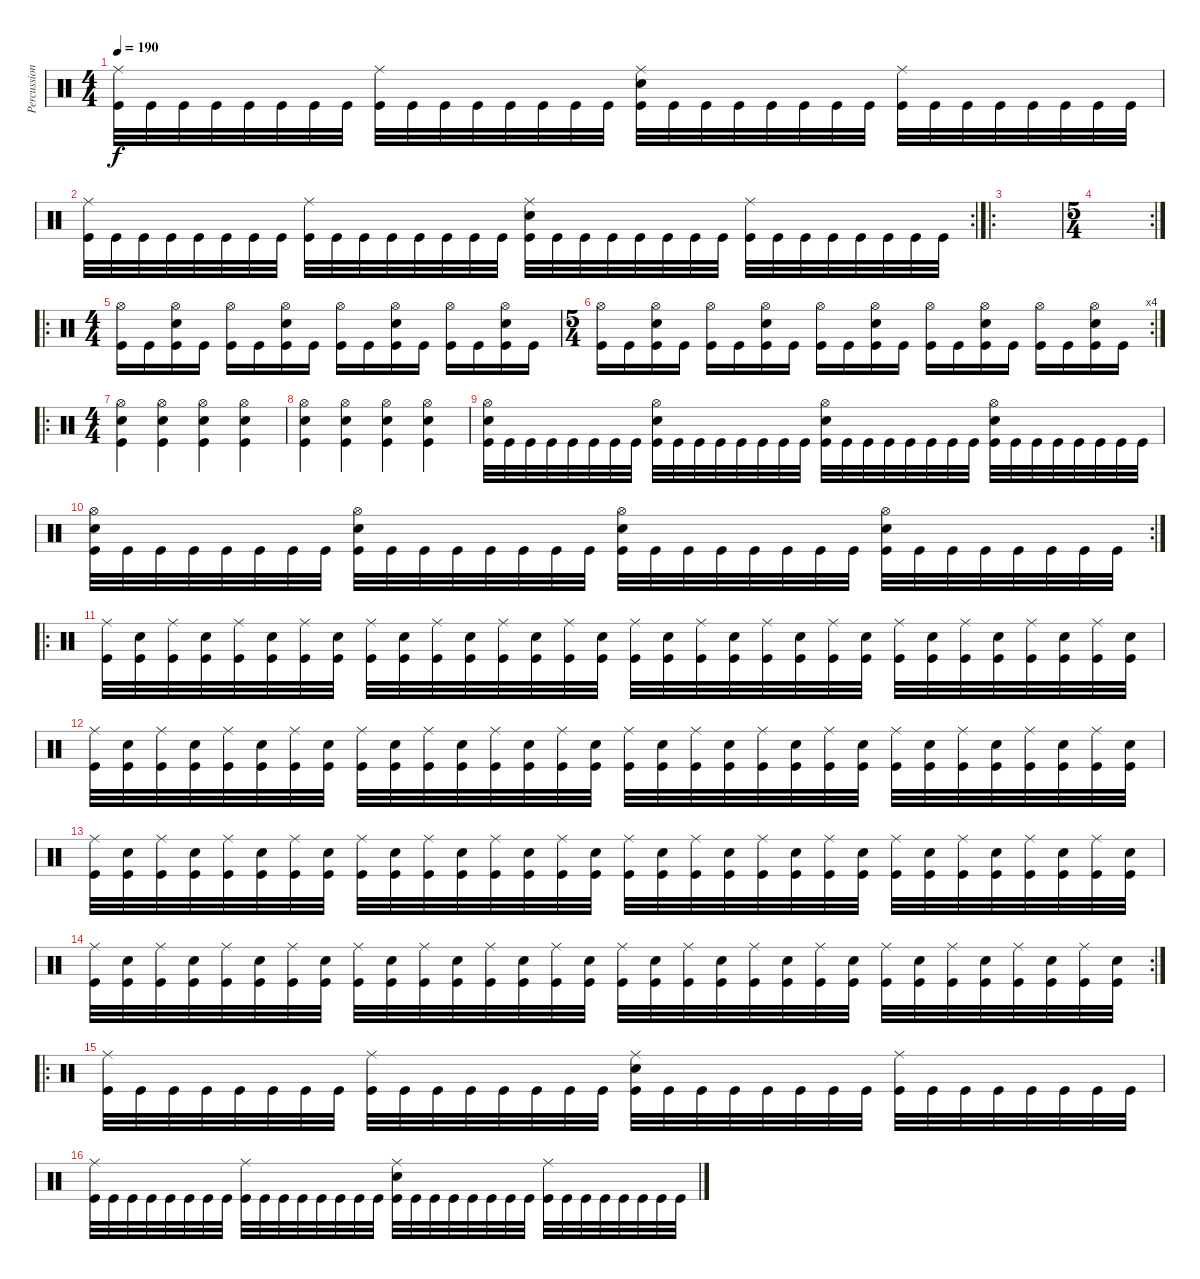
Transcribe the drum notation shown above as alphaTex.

\track ("Percussion" "Percussion") {instrument percussion}
\staff {score}
\articulation defaults
\ts (4 4)
\tempo 190
\clef neutral
\ks c
("Ride (middle)" "Kick (hit)").32{dy f} "Kick (hit)".32 "Kick (hit)".32 "Kick (hit)".32 "Kick (hit)".32 "Kick (hit)".32 "Kick (hit)".32 "Kick (hit)".32 ("Ride (middle)" "Kick (hit)").32 "Kick (hit)".32 "Kick (hit)".32 "Kick (hit)".32 "Kick (hit)".32 "Kick (hit)".32 "Kick (hit)".32 "Kick (hit)".32 ("Ride (middle)" "Snare (hit) 2" "Kick (hit)").32 "Kick (hit)".32 "Kick (hit)".32 "Kick (hit)".32 "Kick (hit)".32 "Kick (hit)".32 "Kick (hit)".32 "Kick (hit)".32 ("Ride (middle)" "Kick (hit)").32 "Kick (hit)".32 "Kick (hit)".32 "Kick (hit)".32 "Kick (hit)".32 "Kick (hit)".32 "Kick (hit)".32 "Kick (hit)".32 |
\rc 2
("Ride (middle)" "Kick (hit)").32 "Kick (hit)".32 "Kick (hit)".32 "Kick (hit)".32 "Kick (hit)".32 "Kick (hit)".32 "Kick (hit)".32 "Kick (hit)".32 ("Ride (middle)" "Kick (hit)").32 "Kick (hit)".32 "Kick (hit)".32 "Kick (hit)".32 "Kick (hit)".32 "Kick (hit)".32 "Kick (hit)".32 "Kick (hit)".32 ("Ride (middle)" "Snare (hit) 2" "Kick (hit)").32 "Kick (hit)".32 "Kick (hit)".32 "Kick (hit)".32 "Kick (hit)".32 "Kick (hit)".32 "Kick (hit)".32 "Kick (hit)".32 ("Ride (middle)" "Kick (hit)").32 "Kick (hit)".32 "Kick (hit)".32 "Kick (hit)".32 "Kick (hit)".32 "Kick (hit)".32 "Kick (hit)".32 "Kick (hit)".32 |
\ro
|
\rc 2
\ts (5 4)
|
\ro
\ts (4 4)
("Hi-Hat (open)" "Kick (hit)").16 "Kick (hit)".16 ("Hi-Hat (open)" "Snare (hit) 2" "Kick (hit)").16 "Kick (hit)".16 ("Hi-Hat (open)" "Kick (hit)").16 "Kick (hit)".16 ("Hi-Hat (open)" "Snare (hit) 2" "Kick (hit)").16 "Kick (hit)".16 ("Hi-Hat (open)" "Kick (hit)").16 "Kick (hit)".16 ("Hi-Hat (open)" "Snare (hit) 2" "Kick (hit)").16 "Kick (hit)".16 ("Hi-Hat (open)" "Kick (hit)").16 "Kick (hit)".16 ("Hi-Hat (open)" "Snare (hit) 2" "Kick (hit)").16 "Kick (hit)".16 |
\rc 4
\ts (5 4)
("Hi-Hat (open)" "Kick (hit)").16 "Kick (hit)".16 ("Hi-Hat (open)" "Snare (hit) 2" "Kick (hit)").16 "Kick (hit)".16 ("Hi-Hat (open)" "Kick (hit)").16 "Kick (hit)".16 ("Hi-Hat (open)" "Snare (hit) 2" "Kick (hit)").16 "Kick (hit)".16 ("Hi-Hat (open)" "Kick (hit)").16 "Kick (hit)".16 ("Hi-Hat (open)" "Snare (hit) 2" "Kick (hit)").16 "Kick (hit)".16 ("Hi-Hat (open)" "Kick (hit)").16 "Kick (hit)".16 ("Hi-Hat (open)" "Snare (hit) 2" "Kick (hit)").16 "Kick (hit)".16 ("Hi-Hat (open)" "Kick (hit)").16 "Kick (hit)".16 ("Hi-Hat (open)" "Snare (hit) 2" "Kick (hit)").16 "Kick (hit)".16 |
\ro
\ts (4 4)
("Hi-Hat (open)" "Snare (hit) 2" "Kick (hit)").4 ("Hi-Hat (open)" "Snare (hit) 2" "Kick (hit)").4 ("Hi-Hat (open)" "Snare (hit) 2" "Kick (hit)").4 ("Hi-Hat (open)" "Snare (hit) 2" "Kick (hit)").4 |
("Hi-Hat (open)" "Snare (hit) 2" "Kick (hit)").4 ("Hi-Hat (open)" "Snare (hit) 2" "Kick (hit)").4 ("Hi-Hat (open)" "Snare (hit) 2" "Kick (hit)").4 ("Hi-Hat (open)" "Snare (hit) 2" "Kick (hit)").4 |
("Hi-Hat (open)" "Snare (hit) 2" "Kick (hit)").32 "Kick (hit)".32 "Kick (hit)".32 "Kick (hit)".32 "Kick (hit)".32 "Kick (hit)".32 "Kick (hit)".32 "Kick (hit)".32 ("Hi-Hat (open)" "Snare (hit) 2" "Kick (hit)").32 "Kick (hit)".32 "Kick (hit)".32 "Kick (hit)".32 "Kick (hit)".32 "Kick (hit)".32 "Kick (hit)".32 "Kick (hit)".32 ("Hi-Hat (open)" "Snare (hit) 2" "Kick (hit)").32 "Kick (hit)".32 "Kick (hit)".32 "Kick (hit)".32 "Kick (hit)".32 "Kick (hit)".32 "Kick (hit)".32 "Kick (hit)".32 ("Hi-Hat (open)" "Snare (hit) 2" "Kick (hit)").32 "Kick (hit)".32 "Kick (hit)".32 "Kick (hit)".32 "Kick (hit)".32 "Kick (hit)".32 "Kick (hit)".32 "Kick (hit)".32 |
\rc 2
("Hi-Hat (open)" "Snare (hit) 2" "Kick (hit)").32 "Kick (hit)".32 "Kick (hit)".32 "Kick (hit)".32 "Kick (hit)".32 "Kick (hit)".32 "Kick (hit)".32 "Kick (hit)".32 ("Hi-Hat (open)" "Snare (hit) 2" "Kick (hit)").32 "Kick (hit)".32 "Kick (hit)".32 "Kick (hit)".32 "Kick (hit)".32 "Kick (hit)".32 "Kick (hit)".32 "Kick (hit)".32 ("Hi-Hat (open)" "Snare (hit) 2" "Kick (hit)").32 "Kick (hit)".32 "Kick (hit)".32 "Kick (hit)".32 "Kick (hit)".32 "Kick (hit)".32 "Kick (hit)".32 "Kick (hit)".32 ("Hi-Hat (open)" "Snare (hit) 2" "Kick (hit)").32 "Kick (hit)".32 "Kick (hit)".32 "Kick (hit)".32 "Kick (hit)".32 "Kick (hit)".32 "Kick (hit)".32 "Kick (hit)".32 |
\ro
("Ride (middle)" "Kick (hit)").32 ("Snare (hit) 2" "Kick (hit)").32 ("Ride (middle)" "Kick (hit)").32 ("Snare (hit) 2" "Kick (hit)").32 ("Ride (middle)" "Kick (hit)").32 ("Snare (hit) 2" "Kick (hit)").32 ("Ride (middle)" "Kick (hit)").32 ("Snare (hit) 2" "Kick (hit)").32 ("Ride (middle)" "Kick (hit)").32 ("Snare (hit) 2" "Kick (hit)").32 ("Ride (middle)" "Kick (hit)").32 ("Snare (hit) 2" "Kick (hit)").32 ("Ride (middle)" "Kick (hit)").32 ("Snare (hit) 2" "Kick (hit)").32 ("Ride (middle)" "Kick (hit)").32 ("Snare (hit) 2" "Kick (hit)").32 ("Ride (middle)" "Kick (hit)").32 ("Snare (hit) 2" "Kick (hit)").32 ("Ride (middle)" "Kick (hit)").32 ("Snare (hit) 2" "Kick (hit)").32 ("Ride (middle)" "Kick (hit)").32 ("Snare (hit) 2" "Kick (hit)").32 ("Ride (middle)" "Kick (hit)").32 ("Snare (hit) 2" "Kick (hit)").32 ("Ride (middle)" "Kick (hit)").32 ("Snare (hit) 2" "Kick (hit)").32 ("Ride (middle)" "Kick (hit)").32 ("Snare (hit) 2" "Kick (hit)").32 ("Ride (middle)" "Kick (hit)").32 ("Snare (hit) 2" "Kick (hit)").32 ("Ride (middle)" "Kick (hit)").32 ("Snare (hit) 2" "Kick (hit)").32 |
("Ride (middle)" "Kick (hit)").32 ("Snare (hit) 2" "Kick (hit)").32 ("Ride (middle)" "Kick (hit)").32 ("Snare (hit) 2" "Kick (hit)").32 ("Ride (middle)" "Kick (hit)").32 ("Snare (hit) 2" "Kick (hit)").32 ("Ride (middle)" "Kick (hit)").32 ("Snare (hit) 2" "Kick (hit)").32 ("Ride (middle)" "Kick (hit)").32 ("Snare (hit) 2" "Kick (hit)").32 ("Ride (middle)" "Kick (hit)").32 ("Snare (hit) 2" "Kick (hit)").32 ("Ride (middle)" "Kick (hit)").32 ("Snare (hit) 2" "Kick (hit)").32 ("Ride (middle)" "Kick (hit)").32 ("Snare (hit) 2" "Kick (hit)").32 ("Ride (middle)" "Kick (hit)").32 ("Snare (hit) 2" "Kick (hit)").32 ("Ride (middle)" "Kick (hit)").32 ("Snare (hit) 2" "Kick (hit)").32 ("Ride (middle)" "Kick (hit)").32 ("Snare (hit) 2" "Kick (hit)").32 ("Ride (middle)" "Kick (hit)").32 ("Snare (hit) 2" "Kick (hit)").32 ("Ride (middle)" "Kick (hit)").32 ("Snare (hit) 2" "Kick (hit)").32 ("Ride (middle)" "Kick (hit)").32 ("Snare (hit) 2" "Kick (hit)").32 ("Ride (middle)" "Kick (hit)").32 ("Snare (hit) 2" "Kick (hit)").32 ("Ride (middle)" "Kick (hit)").32 ("Snare (hit) 2" "Kick (hit)").32 |
("Ride (middle)" "Kick (hit)").32 ("Snare (hit) 2" "Kick (hit)").32 ("Ride (middle)" "Kick (hit)").32 ("Snare (hit) 2" "Kick (hit)").32 ("Ride (middle)" "Kick (hit)").32 ("Snare (hit) 2" "Kick (hit)").32 ("Ride (middle)" "Kick (hit)").32 ("Snare (hit) 2" "Kick (hit)").32 ("Ride (middle)" "Kick (hit)").32 ("Snare (hit) 2" "Kick (hit)").32 ("Ride (middle)" "Kick (hit)").32 ("Snare (hit) 2" "Kick (hit)").32 ("Ride (middle)" "Kick (hit)").32 ("Snare (hit) 2" "Kick (hit)").32 ("Ride (middle)" "Kick (hit)").32 ("Snare (hit) 2" "Kick (hit)").32 ("Ride (middle)" "Kick (hit)").32 ("Snare (hit) 2" "Kick (hit)").32 ("Ride (middle)" "Kick (hit)").32 ("Snare (hit) 2" "Kick (hit)").32 ("Ride (middle)" "Kick (hit)").32 ("Snare (hit) 2" "Kick (hit)").32 ("Ride (middle)" "Kick (hit)").32 ("Snare (hit) 2" "Kick (hit)").32 ("Ride (middle)" "Kick (hit)").32 ("Snare (hit) 2" "Kick (hit)").32 ("Ride (middle)" "Kick (hit)").32 ("Snare (hit) 2" "Kick (hit)").32 ("Ride (middle)" "Kick (hit)").32 ("Snare (hit) 2" "Kick (hit)").32 ("Ride (middle)" "Kick (hit)").32 ("Snare (hit) 2" "Kick (hit)").32 |
\rc 2
("Ride (middle)" "Kick (hit)").32 ("Snare (hit) 2" "Kick (hit)").32 ("Ride (middle)" "Kick (hit)").32 ("Snare (hit) 2" "Kick (hit)").32 ("Ride (middle)" "Kick (hit)").32 ("Snare (hit) 2" "Kick (hit)").32 ("Ride (middle)" "Kick (hit)").32 ("Snare (hit) 2" "Kick (hit)").32 ("Ride (middle)" "Kick (hit)").32 ("Snare (hit) 2" "Kick (hit)").32 ("Ride (middle)" "Kick (hit)").32 ("Snare (hit) 2" "Kick (hit)").32 ("Ride (middle)" "Kick (hit)").32 ("Snare (hit) 2" "Kick (hit)").32 ("Ride (middle)" "Kick (hit)").32 ("Snare (hit) 2" "Kick (hit)").32 ("Ride (middle)" "Kick (hit)").32 ("Snare (hit) 2" "Kick (hit)").32 ("Ride (middle)" "Kick (hit)").32 ("Snare (hit) 2" "Kick (hit)").32 ("Ride (middle)" "Kick (hit)").32 ("Snare (hit) 2" "Kick (hit)").32 ("Ride (middle)" "Kick (hit)").32 ("Snare (hit) 2" "Kick (hit)").32 ("Ride (middle)" "Kick (hit)").32 ("Snare (hit) 2" "Kick (hit)").32 ("Ride (middle)" "Kick (hit)").32 ("Snare (hit) 2" "Kick (hit)").32 ("Ride (middle)" "Kick (hit)").32 ("Snare (hit) 2" "Kick (hit)").32 ("Ride (middle)" "Kick (hit)").32 ("Snare (hit) 2" "Kick (hit)").32 |
\ro
("Ride (middle)" "Kick (hit)").32 "Kick (hit)".32 "Kick (hit)".32 "Kick (hit)".32 "Kick (hit)".32 "Kick (hit)".32 "Kick (hit)".32 "Kick (hit)".32 ("Ride (middle)" "Kick (hit)").32 "Kick (hit)".32 "Kick (hit)".32 "Kick (hit)".32 "Kick (hit)".32 "Kick (hit)".32 "Kick (hit)".32 "Kick (hit)".32 ("Ride (middle)" "Snare (hit) 2" "Kick (hit)").32 "Kick (hit)".32 "Kick (hit)".32 "Kick (hit)".32 "Kick (hit)".32 "Kick (hit)".32 "Kick (hit)".32 "Kick (hit)".32 ("Ride (middle)" "Kick (hit)").32 "Kick (hit)".32 "Kick (hit)".32 "Kick (hit)".32 "Kick (hit)".32 "Kick (hit)".32 "Kick (hit)".32 "Kick (hit)".32 |
("Ride (middle)" "Kick (hit)").32 "Kick (hit)".32 "Kick (hit)".32 "Kick (hit)".32 "Kick (hit)".32 "Kick (hit)".32 "Kick (hit)".32 "Kick (hit)".32 ("Ride (middle)" "Kick (hit)").32 "Kick (hit)".32 "Kick (hit)".32 "Kick (hit)".32 "Kick (hit)".32 "Kick (hit)".32 "Kick (hit)".32 "Kick (hit)".32 ("Ride (middle)" "Snare (hit) 2" "Kick (hit)").32 "Kick (hit)".32 "Kick (hit)".32 "Kick (hit)".32 "Kick (hit)".32 "Kick (hit)".32 "Kick (hit)".32 "Kick (hit)".32 ("Ride (middle)" "Kick (hit)").32 "Kick (hit)".32 "Kick (hit)".32 "Kick (hit)".32 "Kick (hit)".32 "Kick (hit)".32 "Kick (hit)".32 "Kick (hit)".32
